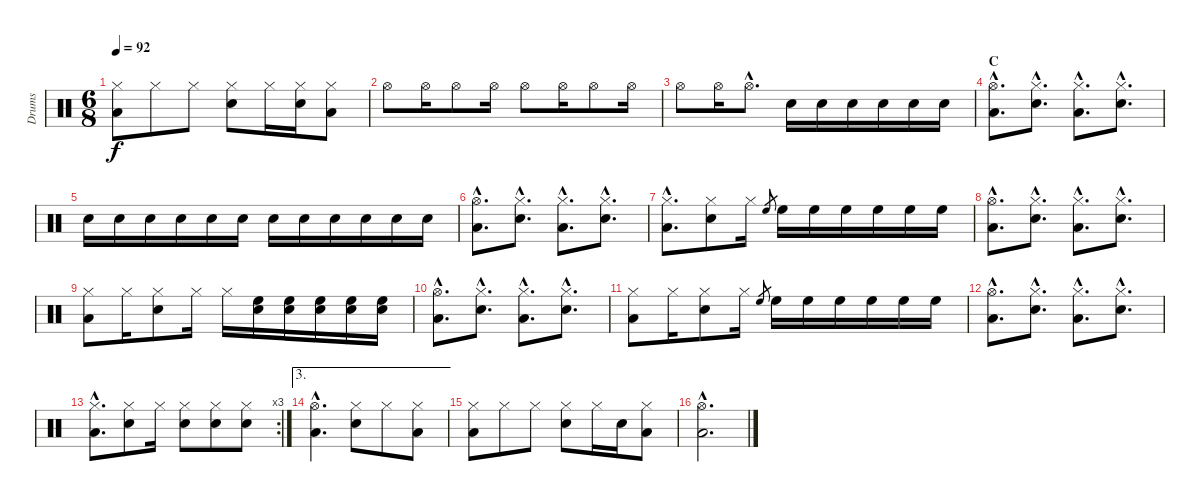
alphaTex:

\track ("Drums" "Drums") {instrument percussion}
\staff {score}
\articulation defaults
\ts (6 8)
\tempo 92
\clef neutral
\ks c
("Hi-Hat (closed)" "Low Floor Tom (hit)").8{dy f} "Hi-Hat (closed)".8 "Hi-Hat (closed)".8 ("Hi-Hat (closed)" "Snare (hit) 2").8 "Hi-Hat (closed)".16 ("Hi-Hat (closed)" "Snare (hit) 2").16 ("Hi-Hat (closed)" "Low Floor Tom (hit)").8 |
"Hi-Hat (open)".8 "Hi-Hat (open)".16 "Hi-Hat (open)".8 "Hi-Hat (open)".16 "Hi-Hat (open)".8 "Hi-Hat (open)".16 "Hi-Hat (open)".8 "Hi-Hat (open)".16 |
"Hi-Hat (open)".8 "Hi-Hat (open)".16 "Hi-Hat (open)"{hac}.8{d} "Snare (hit) 2".16 "Snare (hit) 2".16 "Snare (hit) 2".16 "Snare (hit) 2".16 "Snare (hit) 2".16 "Snare (hit) 2".16{volume 13} |
\section ("" "C")
("Hi-Hat (open)"{hac} "Low Floor Tom (hit)"{hac}).8{d} ("Hi-Hat (closed)"{hac} "Snare (hit) 2"{hac}).8{d} ("Hi-Hat (closed)"{hac} "Low Floor Tom (hit)"{hac}).8{d} ("Hi-Hat (closed)"{hac} "Snare (hit) 2"{hac}).8{d} |
"Snare (hit) 2".16 "Snare (hit) 2".16 "Snare (hit) 2".16 "Snare (hit) 2".16 "Snare (hit) 2".16 "Snare (hit) 2".16 "Snare (hit) 2".16 "Snare (hit) 2".16 "Snare (hit) 2".16 "Snare (hit) 2".16 "Snare (hit) 2".16 "Snare (hit) 2".16 |
("Hi-Hat (open)"{hac} "Low Floor Tom (hit)"{hac}).8{d} ("Hi-Hat (closed)"{hac} "Snare (hit) 2"{hac}).8{d} ("Hi-Hat (closed)"{hac} "Low Floor Tom (hit)"{hac}).8{d} ("Hi-Hat (closed)"{hac} "Snare (hit) 2"{hac}).8{d} |
("Hi-Hat (closed)"{hac} "Low Floor Tom (hit)"{hac}).8{d} ("Hi-Hat (closed)" "Snare (hit) 2").8 "Hi-Hat (closed)".16 "High Floor Tom (hit)".8{gr} "High Floor Tom (hit)".16 "High Floor Tom (hit)".16 "High Floor Tom (hit)".16 "High Floor Tom (hit)".16 "High Floor Tom (hit)".16 "High Floor Tom (hit)".16 |
("Hi-Hat (open)"{hac} "Low Floor Tom (hit)"{hac}).8{d} ("Hi-Hat (closed)"{hac} "Snare (hit) 2"{hac}).8{d} ("Hi-Hat (closed)"{hac} "Low Floor Tom (hit)"{hac}).8{d} ("Hi-Hat (closed)"{hac} "Snare (hit) 2"{hac}).8{d} |
("Hi-Hat (closed)" "Low Floor Tom (hit)").8 "Hi-Hat (closed)".16 ("Hi-Hat (closed)" "Snare (hit) 2").8 "Hi-Hat (closed)".16 "Hi-Hat (closed)".16 ("High Floor Tom (hit)" "Snare (hit) 2").16 ("High Floor Tom (hit)" "Snare (hit) 2").16 ("High Floor Tom (hit)" "Snare (hit) 2").16 ("High Floor Tom (hit)" "Snare (hit) 2").16 ("High Floor Tom (hit)" "Snare (hit) 2").16 |
("Hi-Hat (open)"{hac} "Low Floor Tom (hit)"{hac}).8{d} ("Hi-Hat (closed)"{hac} "Snare (hit) 2"{hac}).8{d} ("Hi-Hat (closed)"{hac} "Low Floor Tom (hit)"{hac}).8{d} ("Hi-Hat (closed)"{hac} "Snare (hit) 2"{hac}).8{d} |
("Hi-Hat (closed)" "Low Floor Tom (hit)").8 "Hi-Hat (closed)".16 ("Hi-Hat (closed)" "Snare (hit) 2").8 "Hi-Hat (closed)".16 "High Floor Tom (hit)".8{gr} "High Floor Tom (hit)".16 "High Floor Tom (hit)".16 "High Floor Tom (hit)".16 "High Floor Tom (hit)".16 "High Floor Tom (hit)".16 "High Floor Tom (hit)".16 |
("Hi-Hat (open)"{hac} "Low Floor Tom (hit)"{hac}).8{d} ("Hi-Hat (closed)"{hac} "Snare (hit) 2"{hac}).8{d} ("Hi-Hat (closed)"{hac} "Low Floor Tom (hit)"{hac}).8{d} ("Hi-Hat (closed)"{hac} "Snare (hit) 2"{hac}).8{d} |
\rc 3
("Hi-Hat (closed)"{hac} "Low Floor Tom (hit)"{hac}).8{d} ("Hi-Hat (closed)" "Snare (hit) 2").8 "Hi-Hat (closed)".16 ("Hi-Hat (closed)" "Snare (hit) 2").8 ("Hi-Hat (closed)" "Snare (hit) 2").8 ("Hi-Hat (closed)" "Snare (hit) 2").8 |
\ae 3
("Hi-Hat (open)"{hac} "Low Floor Tom (hit)"{hac}).4{d} ("Hi-Hat (closed)" "Snare (hit) 2").8 "Hi-Hat (closed)".8 ("Hi-Hat (closed)" "Low Floor Tom (hit)").8 |
("Hi-Hat (closed)" "Low Floor Tom (hit)").8 "Hi-Hat (closed)".8 "Hi-Hat (closed)".8 ("Hi-Hat (closed)" "Snare (hit) 2").8 "Hi-Hat (closed)".16 "Snare (hit) 2".16 ("Hi-Hat (closed)" "Low Floor Tom (hit)").8 |
("Hi-Hat (open)"{hac} "Low Floor Tom (hit)"{hac}).2{d}
